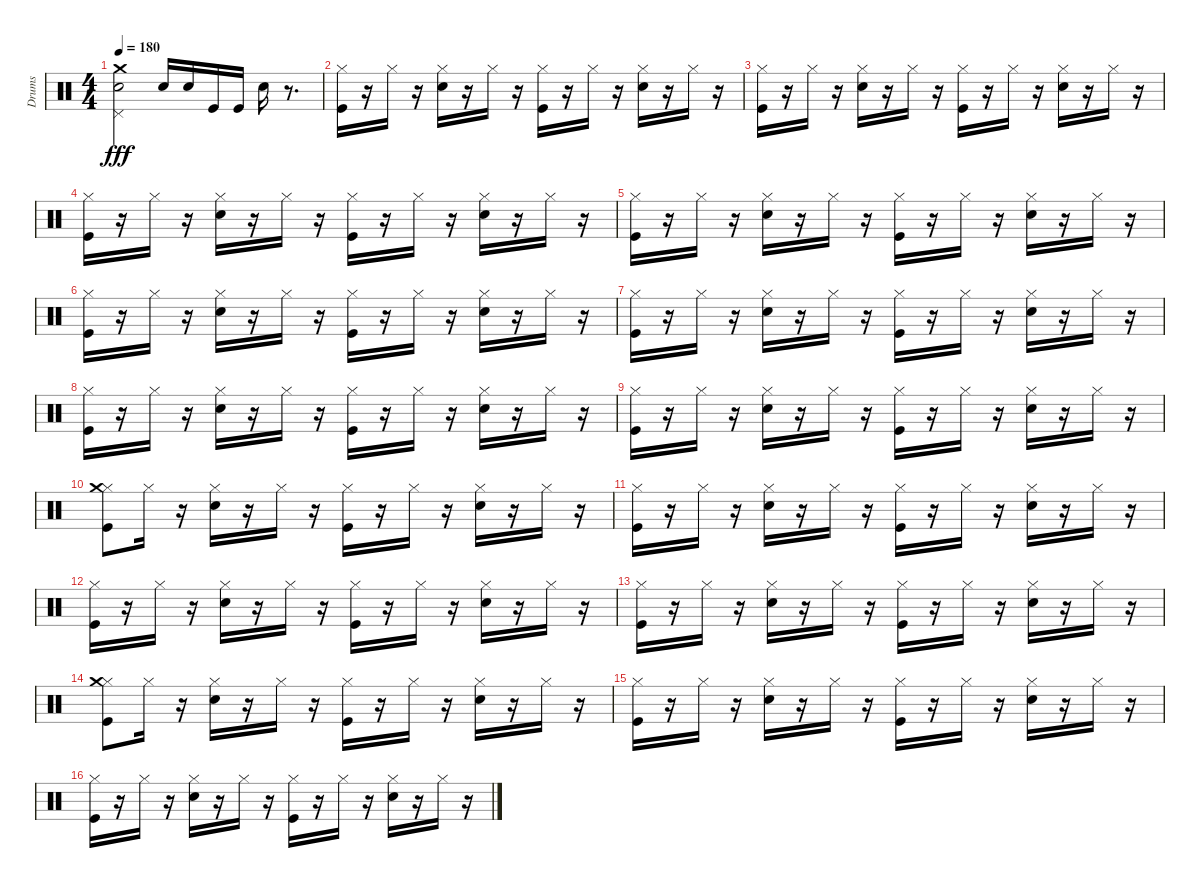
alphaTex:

\track ("Drums" "Drums") {instrument percussion}
\staff {score}
\articulation defaults
\ts (4 4)
\tempo 180
\clef neutral
\ks c
("Pedal Hi-Hat (hit)" "Snare (hit) 2" "Crash medium (hit)").2{dy fff} "Snare (hit) 2".16 "Snare (hit) 2".16 "Kick (hit)".16 "Kick (hit)".16 "Snare (hit) 2".16 r.8{d} |
("Kick (hit)" "Hi-Hat (closed)").16 r.16 "Hi-Hat (closed)".16 r.16 ("Snare (hit) 2" "Hi-Hat (closed)").16 r.16 "Hi-Hat (closed)".16 r.16 ("Kick (hit)" "Hi-Hat (closed)").16 r.16 "Hi-Hat (closed)".16 r.16 ("Snare (hit) 2" "Hi-Hat (closed)").16 r.16 "Hi-Hat (closed)".16 r.16 |
("Hi-Hat (closed)" "Kick (hit)").16 r.16 "Hi-Hat (closed)".16 r.16 ("Hi-Hat (closed)" "Snare (hit) 2").16 r.16 "Hi-Hat (closed)".16 r.16 ("Hi-Hat (closed)" "Kick (hit)").16 r.16 "Hi-Hat (closed)".16 r.16 ("Hi-Hat (closed)" "Snare (hit) 2").16 r.16 "Hi-Hat (closed)".16 r.16 |
("Kick (hit)" "Hi-Hat (closed)").16 r.16 "Hi-Hat (closed)".16 r.16 ("Snare (hit) 2" "Hi-Hat (closed)").16 r.16 "Hi-Hat (closed)".16 r.16 ("Kick (hit)" "Hi-Hat (closed)").16 r.16 "Hi-Hat (closed)".16 r.16 ("Snare (hit) 2" "Hi-Hat (closed)").16 r.16 "Hi-Hat (closed)".16 r.16 |
("Hi-Hat (closed)" "Kick (hit)").16 r.16 "Hi-Hat (closed)".16 r.16 ("Hi-Hat (closed)" "Snare (hit) 2").16 r.16 "Hi-Hat (closed)".16 r.16 ("Hi-Hat (closed)" "Kick (hit)").16 r.16 "Hi-Hat (closed)".16 r.16 ("Hi-Hat (closed)" "Snare (hit) 2").16 r.16 "Hi-Hat (closed)".16 r.16 |
("Kick (hit)" "Hi-Hat (closed)").16 r.16 "Hi-Hat (closed)".16 r.16 ("Snare (hit) 2" "Hi-Hat (closed)").16 r.16 "Hi-Hat (closed)".16 r.16 ("Kick (hit)" "Hi-Hat (closed)").16 r.16 "Hi-Hat (closed)".16 r.16 ("Snare (hit) 2" "Hi-Hat (closed)").16 r.16 "Hi-Hat (closed)".16 r.16 |
("Hi-Hat (closed)" "Kick (hit)").16 r.16 "Hi-Hat (closed)".16 r.16 ("Hi-Hat (closed)" "Snare (hit) 2").16 r.16 "Hi-Hat (closed)".16 r.16 ("Hi-Hat (closed)" "Kick (hit)").16 r.16 "Hi-Hat (closed)".16 r.16 ("Hi-Hat (closed)" "Snare (hit) 2").16 r.16 "Hi-Hat (closed)".16 r.16 |
("Kick (hit)" "Hi-Hat (closed)").16 r.16 "Hi-Hat (closed)".16 r.16 ("Snare (hit) 2" "Hi-Hat (closed)").16 r.16 "Hi-Hat (closed)".16 r.16 ("Kick (hit)" "Hi-Hat (closed)").16 r.16 "Hi-Hat (closed)".16 r.16 ("Snare (hit) 2" "Hi-Hat (closed)").16 r.16 "Hi-Hat (closed)".16 r.16 |
("Hi-Hat (closed)" "Kick (hit)").16 r.16 "Hi-Hat (closed)".16 r.16 ("Hi-Hat (closed)" "Snare (hit) 2").16 r.16 "Hi-Hat (closed)".16 r.16 ("Hi-Hat (closed)" "Kick (hit)").16 r.16 "Hi-Hat (closed)".16 r.16 ("Hi-Hat (closed)" "Snare (hit) 2").16 r.16 "Hi-Hat (closed)".16 r.16 |
("Kick (hit)" "Hi-Hat (closed)" "Crash medium (hit)").8 "Hi-Hat (closed)".16 r.16 ("Snare (hit) 2" "Hi-Hat (closed)").16 r.16 "Hi-Hat (closed)".16 r.16 ("Kick (hit)" "Hi-Hat (closed)").16 r.16 "Hi-Hat (closed)".16 r.16 ("Snare (hit) 2" "Hi-Hat (closed)").16 r.16 "Hi-Hat (closed)".16 r.16 |
("Hi-Hat (closed)" "Kick (hit)").16 r.16 "Hi-Hat (closed)".16 r.16 ("Hi-Hat (closed)" "Snare (hit) 2").16 r.16 "Hi-Hat (closed)".16 r.16 ("Hi-Hat (closed)" "Kick (hit)").16 r.16 "Hi-Hat (closed)".16 r.16 ("Hi-Hat (closed)" "Snare (hit) 2").16 r.16 "Hi-Hat (closed)".16 r.16 |
("Kick (hit)" "Hi-Hat (closed)").16 r.16 "Hi-Hat (closed)".16 r.16 ("Snare (hit) 2" "Hi-Hat (closed)").16 r.16 "Hi-Hat (closed)".16 r.16 ("Kick (hit)" "Hi-Hat (closed)").16 r.16 "Hi-Hat (closed)".16 r.16 ("Snare (hit) 2" "Hi-Hat (closed)").16 r.16 "Hi-Hat (closed)".16 r.16 |
("Hi-Hat (closed)" "Kick (hit)").16 r.16 "Hi-Hat (closed)".16 r.16 ("Hi-Hat (closed)" "Snare (hit) 2").16 r.16 "Hi-Hat (closed)".16 r.16 ("Hi-Hat (closed)" "Kick (hit)").16 r.16 "Hi-Hat (closed)".16 r.16 ("Hi-Hat (closed)" "Snare (hit) 2").16 r.16 "Hi-Hat (closed)".16 r.16 |
("Kick (hit)" "Hi-Hat (closed)" "Crash medium (hit)").8 "Hi-Hat (closed)".16 r.16 ("Snare (hit) 2" "Hi-Hat (closed)").16 r.16 "Hi-Hat (closed)".16 r.16 ("Kick (hit)" "Hi-Hat (closed)").16 r.16 "Hi-Hat (closed)".16 r.16 ("Snare (hit) 2" "Hi-Hat (closed)").16 r.16 "Hi-Hat (closed)".16 r.16 |
("Hi-Hat (closed)" "Kick (hit)").16 r.16 "Hi-Hat (closed)".16 r.16 ("Hi-Hat (closed)" "Snare (hit) 2").16 r.16 "Hi-Hat (closed)".16 r.16 ("Hi-Hat (closed)" "Kick (hit)").16 r.16 "Hi-Hat (closed)".16 r.16 ("Hi-Hat (closed)" "Snare (hit) 2").16 r.16 "Hi-Hat (closed)".16 r.16 |
("Kick (hit)" "Hi-Hat (closed)").16 r.16 "Hi-Hat (closed)".16 r.16 ("Snare (hit) 2" "Hi-Hat (closed)").16 r.16 "Hi-Hat (closed)".16 r.16 ("Kick (hit)" "Hi-Hat (closed)").16 r.16 "Hi-Hat (closed)".16 r.16 ("Snare (hit) 2" "Hi-Hat (closed)").16 r.16 "Hi-Hat (closed)".16 r.16
